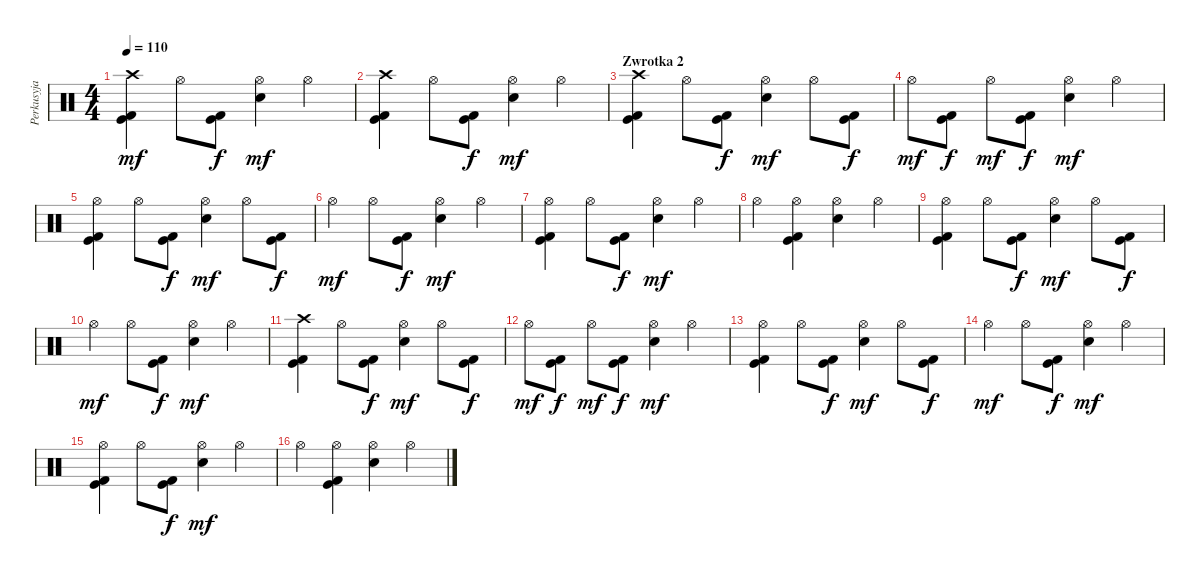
\track ("Perkusyja" "Perkusyja") {instrument percussion}
\staff {score}
\articulation defaults
\ts (4 4)
\tempo 110
\clef neutral
\ks c
("Crash high (hit)" "Kick (hit) 2" "Kick (hit)").4{dy mf} "Hi-Hat (open)".8 ("Kick (hit) 2" "Kick (hit)").8{dy f} ("Hi-Hat (open)" "Snare (hit) 2").4{dy mf} "Hi-Hat (open)".4 |
("Crash high (hit)" "Kick (hit) 2" "Kick (hit)").4 "Hi-Hat (open)".8 ("Kick (hit) 2" "Kick (hit)").8{dy f} ("Hi-Hat (open)" "Snare (hit) 2").4{dy mf} "Hi-Hat (open)".4 |
\section ("" "Zwrotka 2")
("Crash high (hit)" "Kick (hit) 2" "Kick (hit)").4 "Hi-Hat (open)".8 ("Kick (hit) 2" "Kick (hit)").8{dy f} ("Hi-Hat (open)" "Snare (hit) 2").4{dy mf} "Hi-Hat (open)".8 ("Kick (hit) 2" "Kick (hit)").8{dy f} |
"Hi-Hat (open)".8{dy mf} ("Kick (hit) 2" "Kick (hit)").8{dy f} "Hi-Hat (open)".8{dy mf} ("Kick (hit) 2" "Kick (hit)").8{dy f} ("Hi-Hat (open)" "Snare (hit) 2").4{dy mf} "Hi-Hat (open)".4 |
("Hi-Hat (open)" "Kick (hit) 2" "Kick (hit)").4 "Hi-Hat (open)".8 ("Kick (hit) 2" "Kick (hit)").8{dy f} ("Hi-Hat (open)" "Snare (hit) 2").4{dy mf} "Hi-Hat (open)".8 ("Kick (hit) 2" "Kick (hit)").8{dy f} |
"Hi-Hat (open)".4{dy mf} "Hi-Hat (open)".8 ("Kick (hit) 2" "Kick (hit)").8{dy f} ("Hi-Hat (open)" "Snare (hit) 2").4{dy mf} "Hi-Hat (open)".4 |
("Hi-Hat (open)" "Kick (hit) 2" "Kick (hit)").4 "Hi-Hat (open)".8 ("Kick (hit) 2" "Kick (hit)").8{dy f} ("Hi-Hat (open)" "Snare (hit) 2").4{dy mf} "Hi-Hat (open)".4 |
"Hi-Hat (open)".4 ("Hi-Hat (open)" "Kick (hit) 2" "Kick (hit)").4 ("Hi-Hat (open)" "Snare (hit) 2").4 "Hi-Hat (open)".4 |
("Hi-Hat (open)" "Kick (hit) 2" "Kick (hit)").4 "Hi-Hat (open)".8 ("Kick (hit) 2" "Kick (hit)").8{dy f} ("Hi-Hat (open)" "Snare (hit) 2").4{dy mf} "Hi-Hat (open)".8 ("Kick (hit) 2" "Kick (hit)").8{dy f} |
"Hi-Hat (open)".4{dy mf} "Hi-Hat (open)".8 ("Kick (hit) 2" "Kick (hit)").8{dy f} ("Hi-Hat (open)" "Snare (hit) 2").4{dy mf} "Hi-Hat (open)".4 |
("Crash high (hit)" "Kick (hit) 2" "Kick (hit)").4 "Hi-Hat (open)".8 ("Kick (hit) 2" "Kick (hit)").8{dy f} ("Hi-Hat (open)" "Snare (hit) 2").4{dy mf} "Hi-Hat (open)".8 ("Kick (hit) 2" "Kick (hit)").8{dy f} |
"Hi-Hat (open)".8{dy mf} ("Kick (hit) 2" "Kick (hit)").8{dy f} "Hi-Hat (open)".8{dy mf} ("Kick (hit) 2" "Kick (hit)").8{dy f} ("Hi-Hat (open)" "Snare (hit) 2").4{dy mf} "Hi-Hat (open)".4 |
("Hi-Hat (open)" "Kick (hit) 2" "Kick (hit)").4 "Hi-Hat (open)".8 ("Kick (hit) 2" "Kick (hit)").8{dy f} ("Hi-Hat (open)" "Snare (hit) 2").4{dy mf} "Hi-Hat (open)".8 ("Kick (hit) 2" "Kick (hit)").8{dy f} |
"Hi-Hat (open)".4{dy mf} "Hi-Hat (open)".8 ("Kick (hit) 2" "Kick (hit)").8{dy f} ("Hi-Hat (open)" "Snare (hit) 2").4{dy mf} "Hi-Hat (open)".4 |
("Hi-Hat (open)" "Kick (hit) 2" "Kick (hit)").4 "Hi-Hat (open)".8 ("Kick (hit) 2" "Kick (hit)").8{dy f} ("Hi-Hat (open)" "Snare (hit) 2").4{dy mf} "Hi-Hat (open)".4 |
"Hi-Hat (open)".4 ("Hi-Hat (open)" "Kick (hit) 2" "Kick (hit)").4 ("Hi-Hat (open)" "Snare (hit) 2").4 "Hi-Hat (open)".4
